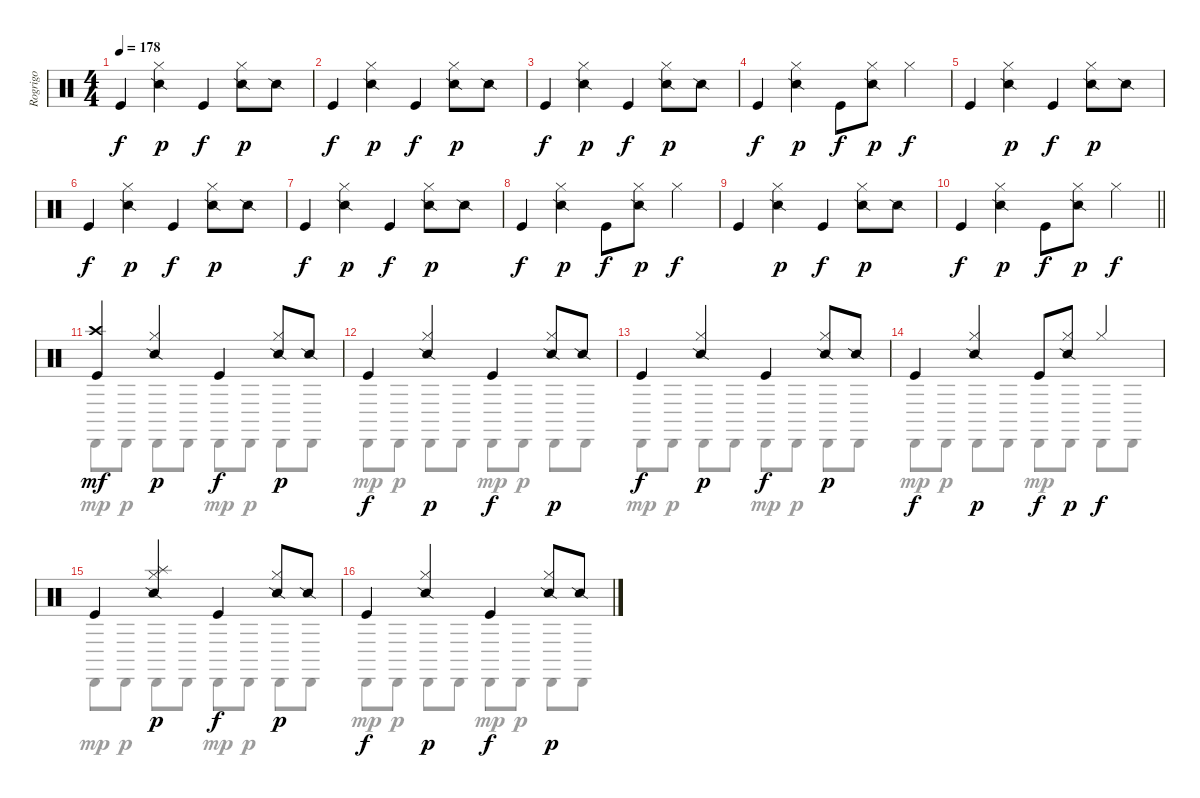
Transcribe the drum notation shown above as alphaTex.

\track ("Rogrigo" "Rogrigo") {instrument percussion}
\staff {score}
\articulation defaults
\voice
\ts (4 4)
\tempo 178
\clef neutral
\ks c "Kick (hit)".4{dy f}
("Hi-Hat (closed)" "Snare (side stick) 2").4{dy p} "Kick (hit)".4{dy f} ("Hi-Hat (closed)" "Snare (side stick) 2").8{dy p} "Snare (side stick) 2".8 |
"Kick (hit)".4{dy f} ("Hi-Hat (closed)" "Snare (side stick) 2").4{dy p} "Kick (hit)".4{dy f} ("Hi-Hat (closed)" "Snare (side stick) 2").8{dy p} "Snare (side stick) 2".8 |
"Kick (hit)".4{dy f} ("Hi-Hat (closed)" "Snare (side stick) 2").4{dy p} "Kick (hit)".4{dy f} ("Hi-Hat (closed)" "Snare (side stick) 2").8{dy p} "Snare (side stick) 2".8 |
"Kick (hit)".4{dy f} ("Hi-Hat (closed)" "Snare (side stick) 2").4{dy p} "Kick (hit)".8{dy f} ("Hi-Hat (closed)" "Snare (side stick) 2").8{dy p} "Hi-Hat (closed)".4{dy f} |
"Kick (hit)".4 ("Hi-Hat (closed)" "Snare (side stick) 2").4{dy p} "Kick (hit)".4{dy f} ("Hi-Hat (closed)" "Snare (side stick) 2").8{dy p} "Snare (side stick) 2".8 |
"Kick (hit)".4{dy f} ("Hi-Hat (closed)" "Snare (side stick) 2").4{dy p} "Kick (hit)".4{dy f} ("Hi-Hat (closed)" "Snare (side stick) 2").8{dy p} "Snare (side stick) 2".8 |
"Kick (hit)".4{dy f} ("Hi-Hat (closed)" "Snare (side stick) 2").4{dy p} "Kick (hit)".4{dy f} ("Hi-Hat (closed)" "Snare (side stick) 2").8{dy p} "Snare (side stick) 2".8 |
"Kick (hit)".4{dy f} ("Hi-Hat (closed)" "Snare (side stick) 2").4{dy p} "Kick (hit)".8{dy f} ("Hi-Hat (closed)" "Snare (side stick) 2").8{dy p} "Hi-Hat (closed)".4{dy f} |
"Kick (hit)".4 ("Hi-Hat (closed)" "Snare (side stick) 2").4{dy p} "Kick (hit)".4{dy f} ("Hi-Hat (closed)" "Snare (side stick) 2").8{dy p} "Snare (side stick) 2".8 |
\barLineRight lightlight "Kick (hit)".4{dy f}
("Hi-Hat (closed)" "Snare (side stick) 2").4{dy p} "Kick (hit)".8{dy f} ("Hi-Hat (closed)" "Snare (side stick) 2").8{dy p} "Hi-Hat (closed)".4{dy f} |
("Crash high (hit)" "Kick (hit)").4{dy mf} ("Hi-Hat (closed)" "Snare (side stick) 2").4{dy p} "Kick (hit)".4{dy f} ("Hi-Hat (closed)" "Snare (side stick) 2").8{dy p} "Snare (side stick) 2".8 |
"Kick (hit)".4{dy f} ("Hi-Hat (closed)" "Snare (side stick) 2").4{dy p} "Kick (hit)".4{dy f} ("Hi-Hat (closed)" "Snare (side stick) 2").8{dy p} "Snare (side stick) 2".8 |
"Kick (hit)".4{dy f} ("Hi-Hat (closed)" "Snare (side stick) 2").4{dy p} "Kick (hit)".4{dy f} ("Hi-Hat (closed)" "Snare (side stick) 2").8{dy p} "Snare (side stick) 2".8 |
"Kick (hit)".4{dy f} ("Hi-Hat (closed)" "Snare (side stick) 2").4{dy p} "Kick (hit)".8{dy f} ("Hi-Hat (closed)" "Snare (side stick) 2").8{dy p} "Hi-Hat (closed)".4{dy f} |
"Kick (hit)".4 ("Hi-Hat (closed)" "Splash (hit)" "Snare (side stick) 2").4{dy p} "Kick (hit)".4{dy f} ("Hi-Hat (closed)" "Snare (side stick) 2").8{dy p} "Snare (side stick) 2".8 |
"Kick (hit)".4{dy f} ("Hi-Hat (closed)" "Snare (side stick) 2").4{dy p} "Kick (hit)".4{dy f} ("Hi-Hat (closed)" "Snare (side stick) 2").8{dy p} "Snare (side stick) 2".8
\voice
\clef neutral
\ottava regular
\simile none
\ks c
|
|
|
|
|
|
|
|
|
\barLineRight lightlight
|
"Cabasa (hit)".8{dy mp} "Cabasa (hit)".8{dy p} "Cabasa (hit)".8 "Cabasa (hit)".8 "Cabasa (hit)".8{dy mp} "Cabasa (hit)".8{dy p} "Cabasa (hit)".8 "Cabasa (hit)".8 |
"Cabasa (hit)".8{dy mp} "Cabasa (hit)".8{dy p} "Cabasa (hit)".8 "Cabasa (hit)".8 "Cabasa (hit)".8{dy mp} "Cabasa (hit)".8{dy p} "Cabasa (hit)".8 "Cabasa (hit)".8 |
"Cabasa (hit)".8{dy mp} "Cabasa (hit)".8{dy p} "Cabasa (hit)".8 "Cabasa (hit)".8 "Cabasa (hit)".8{dy mp} "Cabasa (hit)".8{dy p} "Cabasa (hit)".8 "Cabasa (hit)".8 |
"Cabasa (hit)".8{dy mp} "Cabasa (hit)".8{dy p} "Cabasa (hit)".8 "Cabasa (hit)".8 "Cabasa (hit)".8{dy mp} "Cabasa (hit)".8{dy p} "Cabasa (hit)".8 "Cabasa (hit)".8 |
"Cabasa (hit)".8{dy mp} "Cabasa (hit)".8{dy p} "Cabasa (hit)".8 "Cabasa (hit)".8 "Cabasa (hit)".8{dy mp} "Cabasa (hit)".8{dy p} "Cabasa (hit)".8 "Cabasa (hit)".8 |
"Cabasa (hit)".8{dy mp} "Cabasa (hit)".8{dy p} "Cabasa (hit)".8 "Cabasa (hit)".8 "Cabasa (hit)".8{dy mp} "Cabasa (hit)".8{dy p} "Cabasa (hit)".8 "Cabasa (hit)".8
